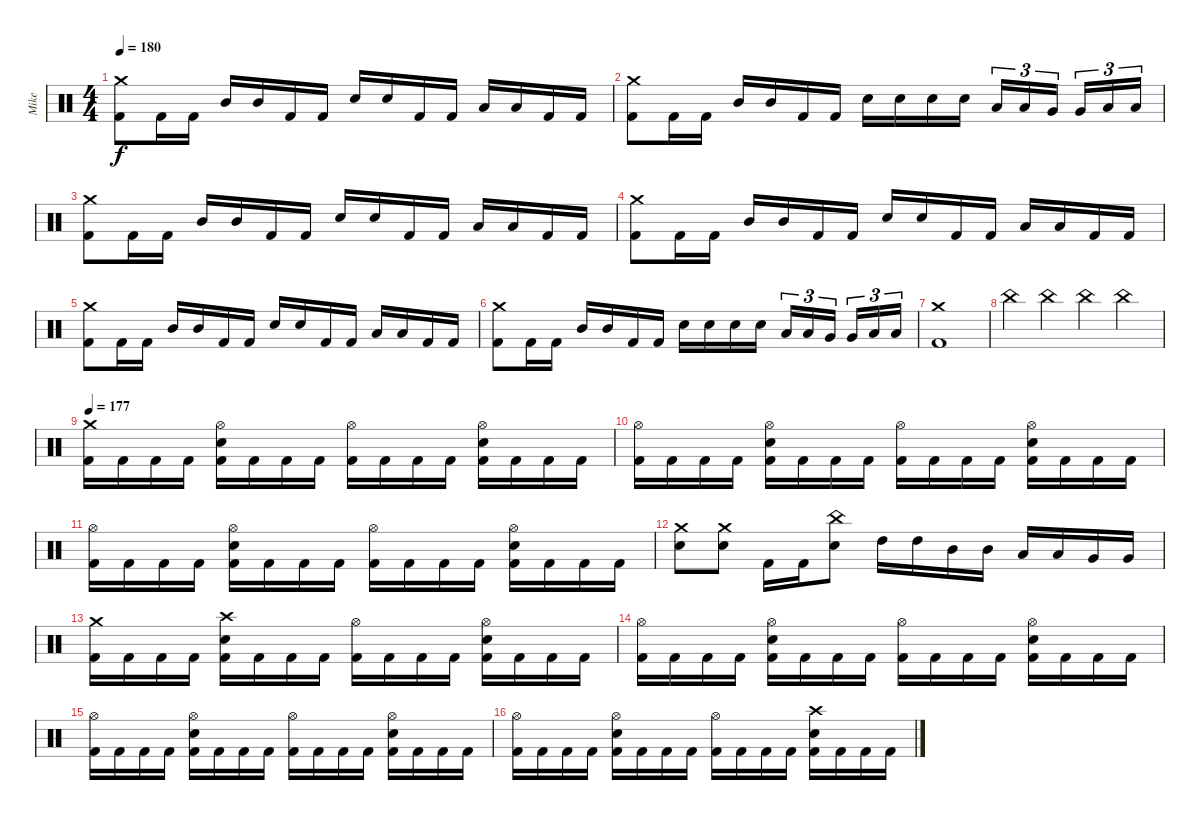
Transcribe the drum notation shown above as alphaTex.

\track ("Mike" "Mike") {instrument percussion}
\staff {score}
\articulation defaults
\ts (4 4)
\tempo 180
\clef neutral
\ks c
("Crash medium (hit)" "Kick (hit) 2").8{dy f} "Kick (hit) 2".16 "Kick (hit) 2".16 "Mid Tom (hit)".16 "Mid Tom (hit)".16 "Kick (hit) 2".16 "Kick (hit) 2".16 "Electric Snare (hit)".16 "Electric Snare (hit)".16 "Kick (hit) 2".16 "Kick (hit) 2".16 "Low Tom (hit)".16 "Low Tom (hit)".16 "Kick (hit) 2".16 "Kick (hit) 2".16 |
("Crash medium (hit)" "Kick (hit) 2").8 "Kick (hit) 2".16 "Kick (hit) 2".16 "Mid Tom (hit)".16 "Mid Tom (hit)".16 "Kick (hit) 2".16 "Kick (hit) 2".16 "Electric Snare (hit)".16 "Electric Snare (hit)".16 "Electric Snare (hit)".16 "Electric Snare (hit)".16 "Low Tom (hit)".16{tu (3 2)} "Low Tom (hit)".16{tu (3 2)} "Very Low Tom (hit)".16{tu (3 2)} "Very Low Tom (hit)".16{tu (3 2)} "Low Floor Tom (hit)".16{tu (3 2)} "Low Floor Tom (hit)".16{tu (3 2)} |
("Crash medium (hit)" "Kick (hit) 2").8 "Kick (hit) 2".16 "Kick (hit) 2".16 "Mid Tom (hit)".16 "Mid Tom (hit)".16 "Kick (hit) 2".16 "Kick (hit) 2".16 "Electric Snare (hit)".16 "Electric Snare (hit)".16 "Kick (hit) 2".16 "Kick (hit) 2".16 "Low Tom (hit)".16 "Low Tom (hit)".16 "Kick (hit) 2".16 "Kick (hit) 2".16 |
("Crash medium (hit)" "Kick (hit) 2").8 "Kick (hit) 2".16 "Kick (hit) 2".16 "Mid Tom (hit)".16 "Mid Tom (hit)".16 "Kick (hit) 2".16 "Kick (hit) 2".16 "Electric Snare (hit)".16 "Electric Snare (hit)".16 "Kick (hit) 2".16 "Kick (hit) 2".16 "Low Tom (hit)".16 "Low Tom (hit)".16 "Kick (hit) 2".16 "Kick (hit) 2".16 |
("Crash medium (hit)" "Kick (hit) 2").8 "Kick (hit) 2".16 "Kick (hit) 2".16 "Mid Tom (hit)".16 "Mid Tom (hit)".16 "Kick (hit) 2".16 "Kick (hit) 2".16 "Electric Snare (hit)".16 "Electric Snare (hit)".16 "Kick (hit) 2".16 "Kick (hit) 2".16 "Low Tom (hit)".16 "Low Tom (hit)".16 "Kick (hit) 2".16 "Kick (hit) 2".16 |
("Crash medium (hit)" "Kick (hit) 2").8 "Kick (hit) 2".16 "Kick (hit) 2".16 "Mid Tom (hit)".16 "Mid Tom (hit)".16 "Kick (hit) 2".16 "Kick (hit) 2".16 "Electric Snare (hit)".16 "Electric Snare (hit)".16 "Electric Snare (hit)".16 "Electric Snare (hit)".16 "Low Tom (hit)".16{tu (3 2)} "Low Tom (hit)".16{tu (3 2)} "Very Low Tom (hit)".16{tu (3 2)} "Very Low Tom (hit)".16{tu (3 2)} "Low Floor Tom (hit)".16{tu (3 2)} "Low Floor Tom (hit)".16{tu (3 2)} |
("Crash medium (hit)" "Kick (hit) 2").1 |
"China (hit)".4 "China (hit)".4 "China (hit)".4 "China (hit)".4 |
\tempo 177
("Crash medium (hit)" "Kick (hit) 2").16 "Kick (hit) 2".16 "Kick (hit) 2".16 "Kick (hit) 2".16 ("Hi-Hat (open)" "Electric Snare (hit)" "Kick (hit) 2").16 "Kick (hit) 2".16 "Kick (hit) 2".16 "Kick (hit) 2".16 ("Hi-Hat (open)" "Kick (hit) 2").16 "Kick (hit) 2".16 "Kick (hit) 2".16 "Kick (hit) 2".16 ("Hi-Hat (open)" "Electric Snare (hit)" "Kick (hit) 2").16 "Kick (hit) 2".16 "Kick (hit) 2".16 "Kick (hit) 2".16 |
("Hi-Hat (open)" "Kick (hit) 2").16 "Kick (hit) 2".16 "Kick (hit) 2".16 "Kick (hit) 2".16 ("Hi-Hat (open)" "Electric Snare (hit)" "Kick (hit) 2").16 "Kick (hit) 2".16 "Kick (hit) 2".16 "Kick (hit) 2".16 ("Hi-Hat (open)" "Kick (hit) 2").16 "Kick (hit) 2".16 "Kick (hit) 2".16 "Kick (hit) 2".16 ("Hi-Hat (open)" "Electric Snare (hit)" "Kick (hit) 2").16 "Kick (hit) 2".16 "Kick (hit) 2".16 "Kick (hit) 2".16 |
("Hi-Hat (open)" "Kick (hit) 2").16 "Kick (hit) 2".16 "Kick (hit) 2".16 "Kick (hit) 2".16 ("Hi-Hat (open)" "Electric Snare (hit)" "Kick (hit) 2").16 "Kick (hit) 2".16 "Kick (hit) 2".16 "Kick (hit) 2".16 ("Hi-Hat (open)" "Kick (hit) 2").16 "Kick (hit) 2".16 "Kick (hit) 2".16 "Kick (hit) 2".16 ("Hi-Hat (open)" "Electric Snare (hit)" "Kick (hit) 2").16 "Kick (hit) 2".16 "Kick (hit) 2".16 "Kick (hit) 2".16 |
("Crash medium (hit)" "Electric Snare (hit)").8 ("Crash medium (hit)" "Electric Snare (hit)").8 "Kick (hit) 2".16 "Kick (hit) 2".16 ("China (hit)" "Electric Snare (hit)").8 "High Tom (hit)".16 "High Tom (hit)".16 "Mid Tom (hit)".16 "Mid Tom (hit)".16 "Low Tom (hit)".16 "Low Tom (hit)".16 "Very Low Tom (hit)".16 "Very Low Tom (hit)".16 |
("Crash medium (hit)" "Kick (hit) 2").16 "Kick (hit) 2".16 "Kick (hit) 2".16 "Kick (hit) 2".16 ("Crash high (hit)" "Electric Snare (hit)" "Kick (hit) 2").16 "Kick (hit) 2".16 "Kick (hit) 2".16 "Kick (hit) 2".16 ("Hi-Hat (open)" "Kick (hit) 2").16 "Kick (hit) 2".16 "Kick (hit) 2".16 "Kick (hit) 2".16 ("Hi-Hat (open)" "Electric Snare (hit)" "Kick (hit) 2").16 "Kick (hit) 2".16 "Kick (hit) 2".16 "Kick (hit) 2".16 |
("Hi-Hat (open)" "Kick (hit) 2").16 "Kick (hit) 2".16 "Kick (hit) 2".16 "Kick (hit) 2".16 ("Hi-Hat (open)" "Electric Snare (hit)" "Kick (hit) 2").16 "Kick (hit) 2".16 "Kick (hit) 2".16 "Kick (hit) 2".16 ("Hi-Hat (open)" "Kick (hit) 2").16 "Kick (hit) 2".16 "Kick (hit) 2".16 "Kick (hit) 2".16 ("Hi-Hat (open)" "Electric Snare (hit)" "Kick (hit) 2").16 "Kick (hit) 2".16 "Kick (hit) 2".16 "Kick (hit) 2".16 |
("Hi-Hat (open)" "Kick (hit) 2").16 "Kick (hit) 2".16 "Kick (hit) 2".16 "Kick (hit) 2".16 ("Hi-Hat (open)" "Electric Snare (hit)" "Kick (hit) 2").16 "Kick (hit) 2".16 "Kick (hit) 2".16 "Kick (hit) 2".16 ("Hi-Hat (open)" "Kick (hit) 2").16 "Kick (hit) 2".16 "Kick (hit) 2".16 "Kick (hit) 2".16 ("Hi-Hat (open)" "Electric Snare (hit)" "Kick (hit) 2").16 "Kick (hit) 2".16 "Kick (hit) 2".16 "Kick (hit) 2".16 |
("Hi-Hat (open)" "Kick (hit) 2").16 "Kick (hit) 2".16 "Kick (hit) 2".16 "Kick (hit) 2".16 ("Hi-Hat (open)" "Electric Snare (hit)" "Kick (hit) 2").16 "Kick (hit) 2".16 "Kick (hit) 2".16 "Kick (hit) 2".16 ("Hi-Hat (open)" "Kick (hit) 2").16 "Kick (hit) 2".16 "Kick (hit) 2".16 "Kick (hit) 2".16 ("Crash high (hit)" "Electric Snare (hit)" "Kick (hit) 2").16 "Kick (hit) 2".16 "Kick (hit) 2".16 "Kick (hit) 2".16
